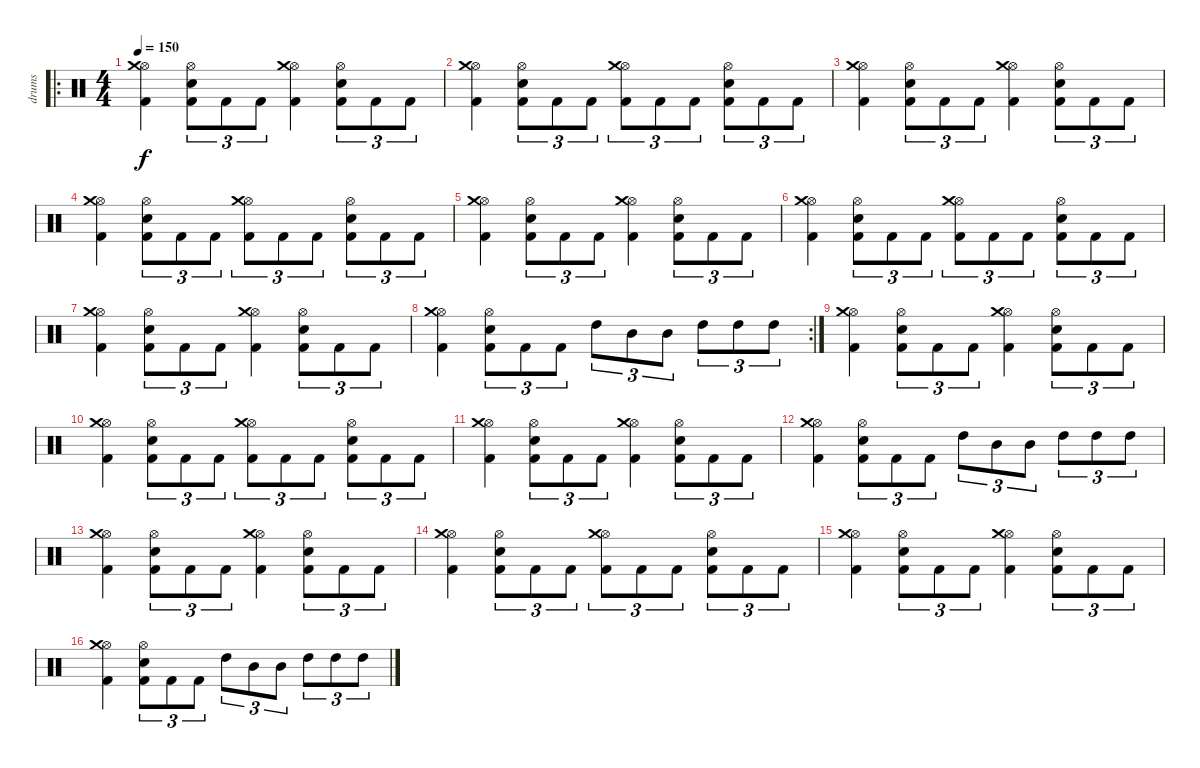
\track ("drums" "drums") {instrument percussion}
\staff {score}
\articulation defaults
\ro
\ts (4 4)
\tempo 150
\clef neutral
\ks c
("Hi-Hat (open)" "Crash medium (hit)" "Kick (hit) 2").4{dy f} ("Snare (hit) 2" "Hi-Hat (open)" "Kick (hit) 2").8{tu (3 2)} "Kick (hit) 2".8{tu (3 2)} "Kick (hit) 2".8{tu (3 2)} ("Hi-Hat (open)" "Crash medium (hit)" "Kick (hit) 2").4 ("Snare (hit) 2" "Hi-Hat (open)" "Kick (hit) 2").8{tu (3 2)} "Kick (hit) 2".8{tu (3 2)} "Kick (hit) 2".8{tu (3 2)} |
("Hi-Hat (open)" "Crash medium (hit)" "Kick (hit) 2").4 ("Snare (hit) 2" "Hi-Hat (open)" "Kick (hit) 2").8{tu (3 2)} "Kick (hit) 2".8{tu (3 2)} "Kick (hit) 2".8{tu (3 2)} ("Hi-Hat (open)" "Crash medium (hit)" "Kick (hit) 2").8{tu (3 2)} "Kick (hit) 2".8{tu (3 2)} "Kick (hit) 2".8{tu (3 2)} ("Snare (hit) 2" "Hi-Hat (open)" "Kick (hit) 2").8{tu (3 2)} "Kick (hit) 2".8{tu (3 2)} "Kick (hit) 2".8{tu (3 2)} |
("Hi-Hat (open)" "Crash medium (hit)" "Kick (hit) 2").4 ("Snare (hit) 2" "Hi-Hat (open)" "Kick (hit) 2").8{tu (3 2)} "Kick (hit) 2".8{tu (3 2)} "Kick (hit) 2".8{tu (3 2)} ("Hi-Hat (open)" "Crash medium (hit)" "Kick (hit) 2").4 ("Snare (hit) 2" "Hi-Hat (open)" "Kick (hit) 2").8{tu (3 2)} "Kick (hit) 2".8{tu (3 2)} "Kick (hit) 2".8{tu (3 2)} |
("Hi-Hat (open)" "Crash medium (hit)" "Kick (hit) 2").4 ("Snare (hit) 2" "Hi-Hat (open)" "Kick (hit) 2").8{tu (3 2)} "Kick (hit) 2".8{tu (3 2)} "Kick (hit) 2".8{tu (3 2)} ("Hi-Hat (open)" "Crash medium (hit)" "Kick (hit) 2").8{tu (3 2)} "Kick (hit) 2".8{tu (3 2)} "Kick (hit) 2".8{tu (3 2)} ("Snare (hit) 2" "Hi-Hat (open)" "Kick (hit) 2").8{tu (3 2)} "Kick (hit) 2".8{tu (3 2)} "Kick (hit) 2".8{tu (3 2)} |
("Hi-Hat (open)" "Crash medium (hit)" "Kick (hit) 2").4 ("Snare (hit) 2" "Hi-Hat (open)" "Kick (hit) 2").8{tu (3 2)} "Kick (hit) 2".8{tu (3 2)} "Kick (hit) 2".8{tu (3 2)} ("Hi-Hat (open)" "Crash medium (hit)" "Kick (hit) 2").4 ("Snare (hit) 2" "Hi-Hat (open)" "Kick (hit) 2").8{tu (3 2)} "Kick (hit) 2".8{tu (3 2)} "Kick (hit) 2".8{tu (3 2)} |
("Hi-Hat (open)" "Crash medium (hit)" "Kick (hit) 2").4 ("Snare (hit) 2" "Hi-Hat (open)" "Kick (hit) 2").8{tu (3 2)} "Kick (hit) 2".8{tu (3 2)} "Kick (hit) 2".8{tu (3 2)} ("Hi-Hat (open)" "Crash medium (hit)" "Kick (hit) 2").8{tu (3 2)} "Kick (hit) 2".8{tu (3 2)} "Kick (hit) 2".8{tu (3 2)} ("Snare (hit) 2" "Hi-Hat (open)" "Kick (hit) 2").8{tu (3 2)} "Kick (hit) 2".8{tu (3 2)} "Kick (hit) 2".8{tu (3 2)} |
("Hi-Hat (open)" "Crash medium (hit)" "Kick (hit) 2").4 ("Snare (hit) 2" "Hi-Hat (open)" "Kick (hit) 2").8{tu (3 2)} "Kick (hit) 2".8{tu (3 2)} "Kick (hit) 2".8{tu (3 2)} ("Hi-Hat (open)" "Crash medium (hit)" "Kick (hit) 2").4 ("Snare (hit) 2" "Hi-Hat (open)" "Kick (hit) 2").8{tu (3 2)} "Kick (hit) 2".8{tu (3 2)} "Kick (hit) 2".8{tu (3 2)} |
\rc 2
("Hi-Hat (open)" "Crash medium (hit)" "Kick (hit) 2").4 ("Snare (hit) 2" "Hi-Hat (open)" "Kick (hit) 2").8{tu (3 2)} "Kick (hit) 2".8{tu (3 2)} "Kick (hit) 2".8{tu (3 2)} "High Tom (hit)".8{tu (3 2)} "Mid Tom (hit)".8{tu (3 2)} "Mid Tom (hit)".8{tu (3 2)} "High Tom (hit)".8{tu (3 2)} "High Tom (hit)".8{tu (3 2)} "High Tom (hit)".8{tu (3 2)} |
("Hi-Hat (open)" "Crash medium (hit)" "Kick (hit) 2").4 ("Snare (hit) 2" "Hi-Hat (open)" "Kick (hit) 2").8{tu (3 2)} "Kick (hit) 2".8{tu (3 2)} "Kick (hit) 2".8{tu (3 2)} ("Hi-Hat (open)" "Crash medium (hit)" "Kick (hit) 2").4 ("Snare (hit) 2" "Hi-Hat (open)" "Kick (hit) 2").8{tu (3 2)} "Kick (hit) 2".8{tu (3 2)} "Kick (hit) 2".8{tu (3 2)} |
("Hi-Hat (open)" "Crash medium (hit)" "Kick (hit) 2").4 ("Snare (hit) 2" "Hi-Hat (open)" "Kick (hit) 2").8{tu (3 2)} "Kick (hit) 2".8{tu (3 2)} "Kick (hit) 2".8{tu (3 2)} ("Hi-Hat (open)" "Crash medium (hit)" "Kick (hit) 2").8{tu (3 2)} "Kick (hit) 2".8{tu (3 2)} "Kick (hit) 2".8{tu (3 2)} ("Snare (hit) 2" "Hi-Hat (open)" "Kick (hit) 2").8{tu (3 2)} "Kick (hit) 2".8{tu (3 2)} "Kick (hit) 2".8{tu (3 2)} |
("Hi-Hat (open)" "Crash medium (hit)" "Kick (hit) 2").4 ("Snare (hit) 2" "Hi-Hat (open)" "Kick (hit) 2").8{tu (3 2)} "Kick (hit) 2".8{tu (3 2)} "Kick (hit) 2".8{tu (3 2)} ("Hi-Hat (open)" "Crash medium (hit)" "Kick (hit) 2").4 ("Snare (hit) 2" "Hi-Hat (open)" "Kick (hit) 2").8{tu (3 2)} "Kick (hit) 2".8{tu (3 2)} "Kick (hit) 2".8{tu (3 2)} |
("Hi-Hat (open)" "Crash medium (hit)" "Kick (hit) 2").4 ("Snare (hit) 2" "Hi-Hat (open)" "Kick (hit) 2").8{tu (3 2)} "Kick (hit) 2".8{tu (3 2)} "Kick (hit) 2".8{tu (3 2)} "High Tom (hit)".8{tu (3 2)} "Mid Tom (hit)".8{tu (3 2)} "Mid Tom (hit)".8{tu (3 2)} "High Tom (hit)".8{tu (3 2)} "High Tom (hit)".8{tu (3 2)} "High Tom (hit)".8{tu (3 2)} |
("Hi-Hat (open)" "Crash medium (hit)" "Kick (hit) 2").4 ("Snare (hit) 2" "Hi-Hat (open)" "Kick (hit) 2").8{tu (3 2)} "Kick (hit) 2".8{tu (3 2)} "Kick (hit) 2".8{tu (3 2)} ("Hi-Hat (open)" "Crash medium (hit)" "Kick (hit) 2").4 ("Snare (hit) 2" "Hi-Hat (open)" "Kick (hit) 2").8{tu (3 2)} "Kick (hit) 2".8{tu (3 2)} "Kick (hit) 2".8{tu (3 2)} |
("Hi-Hat (open)" "Crash medium (hit)" "Kick (hit) 2").4 ("Snare (hit) 2" "Hi-Hat (open)" "Kick (hit) 2").8{tu (3 2)} "Kick (hit) 2".8{tu (3 2)} "Kick (hit) 2".8{tu (3 2)} ("Hi-Hat (open)" "Crash medium (hit)" "Kick (hit) 2").8{tu (3 2)} "Kick (hit) 2".8{tu (3 2)} "Kick (hit) 2".8{tu (3 2)} ("Snare (hit) 2" "Hi-Hat (open)" "Kick (hit) 2").8{tu (3 2)} "Kick (hit) 2".8{tu (3 2)} "Kick (hit) 2".8{tu (3 2)} |
("Hi-Hat (open)" "Crash medium (hit)" "Kick (hit) 2").4 ("Snare (hit) 2" "Hi-Hat (open)" "Kick (hit) 2").8{tu (3 2)} "Kick (hit) 2".8{tu (3 2)} "Kick (hit) 2".8{tu (3 2)} ("Hi-Hat (open)" "Crash medium (hit)" "Kick (hit) 2").4 ("Snare (hit) 2" "Hi-Hat (open)" "Kick (hit) 2").8{tu (3 2)} "Kick (hit) 2".8{tu (3 2)} "Kick (hit) 2".8{tu (3 2)} |
("Hi-Hat (open)" "Crash medium (hit)" "Kick (hit) 2").4 ("Snare (hit) 2" "Hi-Hat (open)" "Kick (hit) 2").8{tu (3 2)} "Kick (hit) 2".8{tu (3 2)} "Kick (hit) 2".8{tu (3 2)} "High Tom (hit)".8{tu (3 2)} "Mid Tom (hit)".8{tu (3 2)} "Mid Tom (hit)".8{tu (3 2)} "High Tom (hit)".8{tu (3 2)} "High Tom (hit)".8{tu (3 2)} "High Tom (hit)".8{tu (3 2)}
